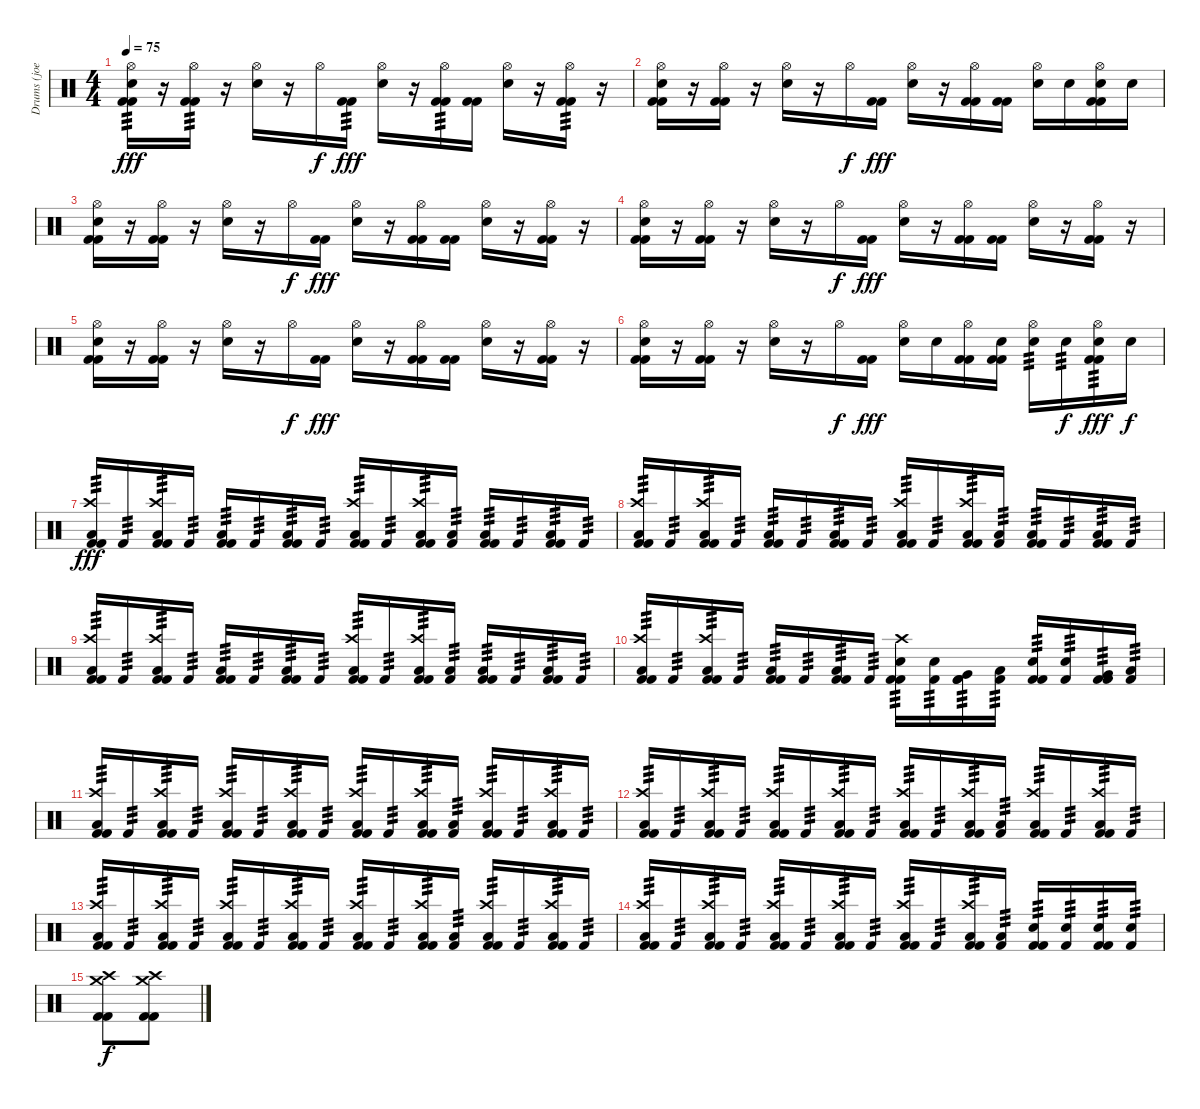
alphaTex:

\track ("Drums (joey)" "Drums (joe") {instrument percussion}
\staff {score}
\articulation defaults
\ts (4 4)
\tempo 75
\clef neutral
\ks c
("Hi-Hat (open)" "Electric Snare (hit)" "Kick (hit) 2" "Kick (hit) 2").16{tp 3 dy fff} r.16 ("Hi-Hat (open)" "Kick (hit) 2" "Kick (hit) 2").16{tp 3} r.16 ("Hi-Hat (open)" "Electric Snare (hit)").16 r.16 "Hi-Hat (open)".16{dy f} ("Kick (hit) 2" "Kick (hit) 2").16{tp 3 dy fff} ("Hi-Hat (open)" "Electric Snare (hit)").16 r.16 ("Hi-Hat (open)" "Kick (hit) 2" "Kick (hit) 2").16{tp 3} ("Kick (hit) 2" "Kick (hit) 2").16 ("Hi-Hat (open)" "Electric Snare (hit)").16 r.16 ("Hi-Hat (open)" "Kick (hit) 2" "Kick (hit) 2").16{tp 3} r.16 |
("Hi-Hat (open)" "Electric Snare (hit)" "Kick (hit) 2" "Kick (hit) 2").16 r.16 ("Hi-Hat (open)" "Kick (hit) 2" "Kick (hit) 2").16 r.16 ("Hi-Hat (open)" "Electric Snare (hit)").16 r.16 "Hi-Hat (open)".16{dy f} ("Kick (hit) 2" "Kick (hit) 2").16{dy fff} ("Hi-Hat (open)" "Electric Snare (hit)").16 r.16 ("Hi-Hat (open)" "Kick (hit) 2" "Kick (hit) 2").16 ("Kick (hit) 2" "Kick (hit) 2").16 ("Hi-Hat (open)" "Electric Snare (hit)").16 "Electric Snare (hit)".16 ("Hi-Hat (open)" "Electric Snare (hit)" "Kick (hit) 2" "Kick (hit) 2").16 "Electric Snare (hit)".16 |
("Hi-Hat (open)" "Electric Snare (hit)" "Kick (hit) 2" "Kick (hit) 2").16 r.16 ("Hi-Hat (open)" "Kick (hit) 2" "Kick (hit) 2").16 r.16 ("Hi-Hat (open)" "Electric Snare (hit)").16 r.16 "Hi-Hat (open)".16{dy f} ("Kick (hit) 2" "Kick (hit) 2").16{dy fff} ("Hi-Hat (open)" "Electric Snare (hit)").16 r.16 ("Hi-Hat (open)" "Kick (hit) 2" "Kick (hit) 2").16 ("Kick (hit) 2" "Kick (hit) 2").16 ("Hi-Hat (open)" "Electric Snare (hit)").16 r.16 ("Hi-Hat (open)" "Kick (hit) 2" "Kick (hit) 2").16 r.16 |
("Hi-Hat (open)" "Electric Snare (hit)" "Kick (hit) 2" "Kick (hit) 2").16 r.16 ("Hi-Hat (open)" "Kick (hit) 2" "Kick (hit) 2").16 r.16 ("Hi-Hat (open)" "Electric Snare (hit)").16 r.16 "Hi-Hat (open)".16{dy f} ("Kick (hit) 2" "Kick (hit) 2").16{dy fff} ("Hi-Hat (open)" "Electric Snare (hit)").16 r.16 ("Hi-Hat (open)" "Kick (hit) 2" "Kick (hit) 2").16 ("Kick (hit) 2" "Kick (hit) 2").16 ("Hi-Hat (open)" "Electric Snare (hit)").16 r.16 ("Hi-Hat (open)" "Kick (hit) 2" "Kick (hit) 2").16 r.16 |
("Hi-Hat (open)" "Electric Snare (hit)" "Kick (hit) 2" "Kick (hit) 2").16 r.16 ("Hi-Hat (open)" "Kick (hit) 2" "Kick (hit) 2").16 r.16 ("Hi-Hat (open)" "Electric Snare (hit)").16 r.16 "Hi-Hat (open)".16{dy f} ("Kick (hit) 2" "Kick (hit) 2").16{dy fff} ("Hi-Hat (open)" "Electric Snare (hit)").16 r.16 ("Hi-Hat (open)" "Kick (hit) 2" "Kick (hit) 2").16 ("Kick (hit) 2" "Kick (hit) 2").16 ("Hi-Hat (open)" "Electric Snare (hit)").16 r.16 ("Hi-Hat (open)" "Kick (hit) 2" "Kick (hit) 2").16 r.16 |
("Hi-Hat (open)" "Electric Snare (hit)" "Kick (hit) 2" "Kick (hit) 2").16 r.16 ("Hi-Hat (open)" "Kick (hit) 2" "Kick (hit) 2").16 r.16 ("Hi-Hat (open)" "Electric Snare (hit)").16 r.16 "Hi-Hat (open)".16{dy f} ("Kick (hit) 2" "Kick (hit) 2").16{dy fff} ("Hi-Hat (open)" "Electric Snare (hit)").16 "Electric Snare (hit)".16 ("Hi-Hat (open)" "Kick (hit) 2" "Kick (hit) 2").16 ("Electric Snare (hit)" "Kick (hit) 2" "Kick (hit) 2").16 ("Hi-Hat (open)" "Electric Snare (hit)").16{tp 3} "Electric Snare (hit)".16{tp 3 dy f} ("Hi-Hat (open)" "Electric Snare (hit)" "Kick (hit) 2" "Kick (hit) 2").16{tp 3 dy fff} "Electric Snare (hit)".16{dy f} |
("Crash high (hit)" "Low Floor Tom (hit)" "Kick (hit) 2" "Kick (hit) 2").16{tp 3 dy fff} "Kick (hit) 2".16{tp 3} ("Crash high (hit)" "Low Floor Tom (hit)" "Kick (hit) 2" "Kick (hit) 2").16{tp 3} "Kick (hit) 2".16{tp 3} ("Low Floor Tom (hit)" "Kick (hit) 2" "Kick (hit) 2").16{tp 3} "Kick (hit) 2".16{tp 3} ("Low Floor Tom (hit)" "Kick (hit) 2" "Kick (hit) 2").16{tp 3} "Kick (hit) 2".16{tp 3} ("Crash high (hit)" "Low Floor Tom (hit)" "Kick (hit) 2" "Kick (hit) 2").16{tp 3} "Kick (hit) 2".16{tp 3} ("Crash high (hit)" "Low Floor Tom (hit)" "Kick (hit) 2" "Kick (hit) 2").16{tp 3} ("Low Floor Tom (hit)" "Kick (hit) 2").16{tp 3} ("Low Floor Tom (hit)" "Kick (hit) 2" "Kick (hit) 2").16{tp 3} "Kick (hit) 2".16{tp 3} ("Low Floor Tom (hit)" "Kick (hit) 2" "Kick (hit) 2").16{tp 3} "Kick (hit) 2".16{tp 3} |
("Crash high (hit)" "Low Floor Tom (hit)" "Kick (hit) 2" "Kick (hit) 2").16{tp 3} "Kick (hit) 2".16{tp 3} ("Crash high (hit)" "Low Floor Tom (hit)" "Kick (hit) 2" "Kick (hit) 2").16{tp 3} "Kick (hit) 2".16{tp 3} ("Low Floor Tom (hit)" "Kick (hit) 2" "Kick (hit) 2").16{tp 3} "Kick (hit) 2".16{tp 3} ("Low Floor Tom (hit)" "Kick (hit) 2" "Kick (hit) 2").16{tp 3} "Kick (hit) 2".16{tp 3} ("Crash high (hit)" "Low Floor Tom (hit)" "Kick (hit) 2" "Kick (hit) 2").16{tp 3} "Kick (hit) 2".16{tp 3} ("Crash high (hit)" "Low Floor Tom (hit)" "Kick (hit) 2" "Kick (hit) 2").16{tp 3} ("Low Floor Tom (hit)" "Kick (hit) 2").16{tp 3} ("Low Floor Tom (hit)" "Kick (hit) 2" "Kick (hit) 2").16{tp 3} "Kick (hit) 2".16{tp 3} ("Low Floor Tom (hit)" "Kick (hit) 2" "Kick (hit) 2").16{tp 3} "Kick (hit) 2".16{tp 3} |
("Crash high (hit)" "Low Floor Tom (hit)" "Kick (hit) 2" "Kick (hit) 2").16{tp 3} "Kick (hit) 2".16{tp 3} ("Crash high (hit)" "Low Floor Tom (hit)" "Kick (hit) 2" "Kick (hit) 2").16{tp 3} "Kick (hit) 2".16{tp 3} ("Low Floor Tom (hit)" "Kick (hit) 2" "Kick (hit) 2").16{tp 3} "Kick (hit) 2".16{tp 3} ("Low Floor Tom (hit)" "Kick (hit) 2" "Kick (hit) 2").16{tp 3} "Kick (hit) 2".16{tp 3} ("Crash high (hit)" "Low Floor Tom (hit)" "Kick (hit) 2" "Kick (hit) 2").16{tp 3} "Kick (hit) 2".16{tp 3} ("Crash high (hit)" "Low Floor Tom (hit)" "Kick (hit) 2" "Kick (hit) 2").16{tp 3} ("Low Floor Tom (hit)" "Kick (hit) 2").16{tp 3} ("Low Floor Tom (hit)" "Kick (hit) 2" "Kick (hit) 2").16{tp 3} "Kick (hit) 2".16{tp 3} ("Low Floor Tom (hit)" "Kick (hit) 2" "Kick (hit) 2").16{tp 3} "Kick (hit) 2".16{tp 3} |
("Crash high (hit)" "Low Floor Tom (hit)" "Kick (hit) 2" "Kick (hit) 2").16{tp 3} "Kick (hit) 2".16{tp 3} ("Crash high (hit)" "Low Floor Tom (hit)" "Kick (hit) 2" "Kick (hit) 2").16{tp 3} "Kick (hit) 2".16{tp 3} ("Low Floor Tom (hit)" "Kick (hit) 2" "Kick (hit) 2").16{tp 3} "Kick (hit) 2".16{tp 3} ("Low Floor Tom (hit)" "Kick (hit) 2" "Kick (hit) 2").16{tp 3} "Kick (hit) 2".16{tp 3} ("Crash high (hit)" "Electric Snare (hit)" "Kick (hit) 2" "Kick (hit) 2").16{tp 3} ("Electric Snare (hit)" "Kick (hit) 2").16{tp 3} ("Very Low Tom (hit)" "Kick (hit) 2" "Kick (hit) 2").16{tp 3} ("Low Floor Tom (hit)" "Kick (hit) 2").16{tp 3} ("Electric Snare (hit)" "Kick (hit) 2" "Kick (hit) 2").16{tp 3} ("Electric Snare (hit)" "Kick (hit) 2").16{tp 3} ("Very Low Tom (hit)" "Kick (hit) 2" "Kick (hit) 2").16{tp 3} ("Low Floor Tom (hit)" "Kick (hit) 2").16{tp 3} |
("Crash high (hit)" "Low Floor Tom (hit)" "Kick (hit) 2" "Kick (hit) 2").16{tp 3} "Kick (hit) 2".16{tp 3} ("Crash high (hit)" "Low Floor Tom (hit)" "Kick (hit) 2" "Kick (hit) 2").16{tp 3} "Kick (hit) 2".16{tp 3} ("Crash high (hit)" "Low Floor Tom (hit)" "Kick (hit) 2" "Kick (hit) 2").16{tp 3} "Kick (hit) 2".16{tp 3} ("Crash high (hit)" "Low Floor Tom (hit)" "Kick (hit) 2" "Kick (hit) 2").16{tp 3} "Kick (hit) 2".16{tp 3} ("Crash high (hit)" "Low Floor Tom (hit)" "Kick (hit) 2" "Kick (hit) 2").16{tp 3} "Kick (hit) 2".16{tp 3} ("Crash high (hit)" "Low Floor Tom (hit)" "Kick (hit) 2" "Kick (hit) 2").16{tp 3} ("Low Floor Tom (hit)" "Kick (hit) 2").16{tp 3} ("Crash high (hit)" "Low Floor Tom (hit)" "Kick (hit) 2" "Kick (hit) 2").16{tp 3} "Kick (hit) 2".16{tp 3} ("Crash high (hit)" "Low Floor Tom (hit)" "Kick (hit) 2" "Kick (hit) 2").16{tp 3} "Kick (hit) 2".16{tp 3} |
("Crash high (hit)" "Low Floor Tom (hit)" "Kick (hit) 2" "Kick (hit) 2").16{tp 3} "Kick (hit) 2".16{tp 3} ("Crash high (hit)" "Low Floor Tom (hit)" "Kick (hit) 2" "Kick (hit) 2").16{tp 3} "Kick (hit) 2".16{tp 3} ("Crash high (hit)" "Low Floor Tom (hit)" "Kick (hit) 2" "Kick (hit) 2").16{tp 3} "Kick (hit) 2".16{tp 3} ("Crash high (hit)" "Low Floor Tom (hit)" "Kick (hit) 2" "Kick (hit) 2").16{tp 3} "Kick (hit) 2".16{tp 3} ("Crash high (hit)" "Low Floor Tom (hit)" "Kick (hit) 2" "Kick (hit) 2").16{tp 3} "Kick (hit) 2".16{tp 3} ("Crash high (hit)" "Low Floor Tom (hit)" "Kick (hit) 2" "Kick (hit) 2").16{tp 3} ("Low Floor Tom (hit)" "Kick (hit) 2").16{tp 3} ("Crash high (hit)" "Low Floor Tom (hit)" "Kick (hit) 2" "Kick (hit) 2").16{tp 3} "Kick (hit) 2".16{tp 3} ("Crash high (hit)" "Low Floor Tom (hit)" "Kick (hit) 2" "Kick (hit) 2").16{tp 3} "Kick (hit) 2".16{tp 3} |
("Crash high (hit)" "Low Floor Tom (hit)" "Kick (hit) 2" "Kick (hit) 2").16{tp 3} "Kick (hit) 2".16{tp 3} ("Crash high (hit)" "Low Floor Tom (hit)" "Kick (hit) 2" "Kick (hit) 2").16{tp 3} "Kick (hit) 2".16{tp 3} ("Crash high (hit)" "Low Floor Tom (hit)" "Kick (hit) 2" "Kick (hit) 2").16{tp 3} "Kick (hit) 2".16{tp 3} ("Crash high (hit)" "Low Floor Tom (hit)" "Kick (hit) 2" "Kick (hit) 2").16{tp 3} "Kick (hit) 2".16{tp 3} ("Crash high (hit)" "Low Floor Tom (hit)" "Kick (hit) 2" "Kick (hit) 2").16{tp 3} "Kick (hit) 2".16{tp 3} ("Crash high (hit)" "Low Floor Tom (hit)" "Kick (hit) 2" "Kick (hit) 2").16{tp 3} ("Low Floor Tom (hit)" "Kick (hit) 2").16{tp 3} ("Crash high (hit)" "Low Floor Tom (hit)" "Kick (hit) 2" "Kick (hit) 2").16{tp 3} "Kick (hit) 2".16{tp 3} ("Crash high (hit)" "Low Floor Tom (hit)" "Kick (hit) 2" "Kick (hit) 2").16{tp 3} "Kick (hit) 2".16{tp 3} |
("Crash high (hit)" "Low Floor Tom (hit)" "Kick (hit) 2" "Kick (hit) 2").16{tp 3} "Kick (hit) 2".16{tp 3} ("Crash high (hit)" "Low Floor Tom (hit)" "Kick (hit) 2" "Kick (hit) 2").16{tp 3} "Kick (hit) 2".16{tp 3} ("Crash high (hit)" "Low Floor Tom (hit)" "Kick (hit) 2" "Kick (hit) 2").16{tp 3} "Kick (hit) 2".16{tp 3} ("Crash high (hit)" "Low Floor Tom (hit)" "Kick (hit) 2" "Kick (hit) 2").16{tp 3} "Kick (hit) 2".16{tp 3} ("Crash high (hit)" "Low Floor Tom (hit)" "Kick (hit) 2" "Kick (hit) 2").16{tp 3} "Kick (hit) 2".16{tp 3} ("Crash high (hit)" "Low Floor Tom (hit)" "Kick (hit) 2" "Kick (hit) 2").16{tp 3} ("Low Floor Tom (hit)" "Kick (hit) 2").16{tp 3} ("Electric Snare (hit)" "Kick (hit) 2" "Kick (hit) 2").16{tp 3} ("Electric Snare (hit)" "Kick (hit) 2").16{tp 3} ("Electric Snare (hit)" "Kick (hit) 2" "Kick (hit) 2").16{tp 3} ("Electric Snare (hit)" "Kick (hit) 2").16{tp 3} |
("Crash medium (hit)" "Crash high (hit)" "Kick (hit) 2" "Kick (hit) 2").8{dy f} ("Crash medium (hit)" "Crash high (hit)" "Kick (hit) 2" "Kick (hit) 2").8
